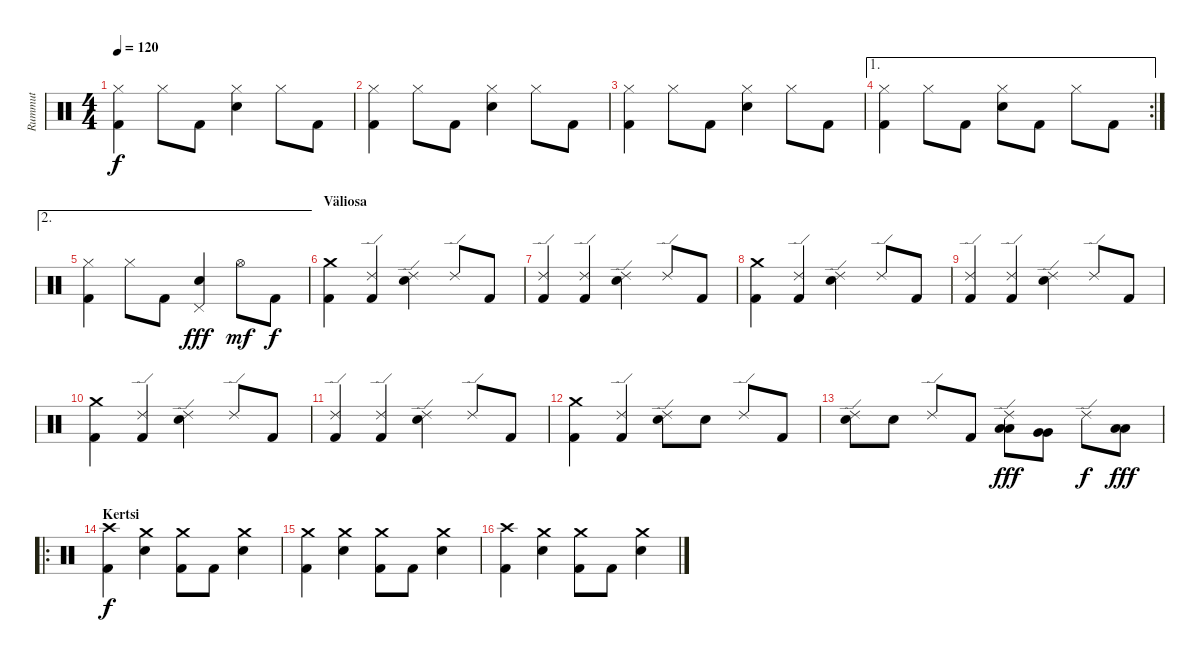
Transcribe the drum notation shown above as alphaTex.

\track ("Rummut" "Rummut") {instrument percussion}
\staff {score}
\articulation defaults
\ts (4 4)
\tempo 120
\clef neutral
\ks c
("Kick (hit) 2" "Hi-Hat (closed)").4{dy f} "Hi-Hat (closed)".8 "Kick (hit) 2".8 ("Hi-Hat (closed)" "Snare (hit) 2").4 "Hi-Hat (closed)".8 "Kick (hit) 2".8 |
("Kick (hit) 2" "Hi-Hat (closed)").4 "Hi-Hat (closed)".8 "Kick (hit) 2".8 ("Hi-Hat (closed)" "Snare (hit) 2").4 "Hi-Hat (closed)".8 "Kick (hit) 2".8 |
("Kick (hit) 2" "Hi-Hat (closed)").4 "Hi-Hat (closed)".8 "Kick (hit) 2".8 ("Hi-Hat (closed)" "Snare (hit) 2").4 "Hi-Hat (closed)".8 "Kick (hit) 2".8 |
\ae 1
\rc 2
("Kick (hit) 2" "Hi-Hat (closed)").4 "Hi-Hat (closed)".8 "Kick (hit) 2".8 ("Hi-Hat (closed)" "Snare (hit) 2").8 "Kick (hit) 2".8 "Hi-Hat (closed)".8 "Kick (hit) 2".8 |
\ae 2
("Kick (hit) 2" "Hi-Hat (closed)").4 "Hi-Hat (closed)".8 "Kick (hit) 2".8 ("Pedal Hi-Hat (hit)" "Snare (hit) 2").4{dy fff} "Hi-Hat (open)".8{dy mf} "Kick (hit) 2".8{dy f} |
\section ("" "Väliosa")
("Kick (hit) 2" "Crash medium (hit)").4 ("Kick (hit) 2" "Ride (edge) 2").4 ("Ride (edge) 2" "Snare (hit) 2").4 "Ride (edge) 2".8 "Kick (hit) 2".8 |
("Kick (hit) 2" "Ride (edge) 2").4 ("Kick (hit) 2" "Ride (edge) 2").4 ("Ride (edge) 2" "Snare (hit) 2").4 "Ride (edge) 2".8 "Kick (hit) 2".8 |
("Kick (hit) 2" "Crash medium (hit)").4 ("Kick (hit) 2" "Ride (edge) 2").4 ("Ride (edge) 2" "Snare (hit) 2").4 "Ride (edge) 2".8 "Kick (hit) 2".8 |
("Kick (hit) 2" "Ride (edge) 2").4 ("Kick (hit) 2" "Ride (edge) 2").4 ("Ride (edge) 2" "Snare (hit) 2").4 "Ride (edge) 2".8 "Kick (hit) 2".8 |
("Kick (hit) 2" "Crash medium (hit)").4 ("Kick (hit) 2" "Ride (edge) 2").4 ("Ride (edge) 2" "Snare (hit) 2").4 "Ride (edge) 2".8 "Kick (hit) 2".8 |
("Kick (hit) 2" "Ride (edge) 2").4 ("Kick (hit) 2" "Ride (edge) 2").4 ("Ride (edge) 2" "Snare (hit) 2").4 "Ride (edge) 2".8 "Kick (hit) 2".8 |
("Kick (hit) 2" "Crash medium (hit)").4 ("Kick (hit) 2" "Ride (edge) 2").4 ("Ride (edge) 2" "Snare (hit) 2").8 "Snare (hit) 2".8 "Ride (edge) 2".8 "Kick (hit) 2".8 |
("Ride (edge) 2" "Snare (hit) 2").8 "Snare (hit) 2".8 "Ride (edge) 2".8 "Kick (hit) 2".8 ("Low Tom (hit)" "Low Tom (hit)" "Ride (edge) 2").8{dy fff} ("Very Low Tom (hit)" "Very Low Tom (hit)").8 "Ride (edge) 2".8{dy f} ("Low Floor Tom (hit)" "Low Floor Tom (hit)").8{dy fff} |
\ro
\section ("" "Kertsi")
("Kick (hit) 2" "Crash high (hit)").4{dy f} ("Crash medium (hit)" "Snare (hit) 2").4 ("Kick (hit) 2" "Crash medium (hit)").8 "Kick (hit) 2".8 ("Crash medium (hit)" "Snare (hit) 2").4 |
("Kick (hit) 2" "Crash medium (hit)").4 ("Crash medium (hit)" "Snare (hit) 2").4 ("Kick (hit) 2" "Crash medium (hit)").8 "Kick (hit) 2".8 ("Crash medium (hit)" "Snare (hit) 2").4 |
("Kick (hit) 2" "Crash high (hit)").4 ("Crash medium (hit)" "Snare (hit) 2").4 ("Kick (hit) 2" "Crash medium (hit)").8 "Kick (hit) 2".8 ("Crash medium (hit)" "Snare (hit) 2").4
